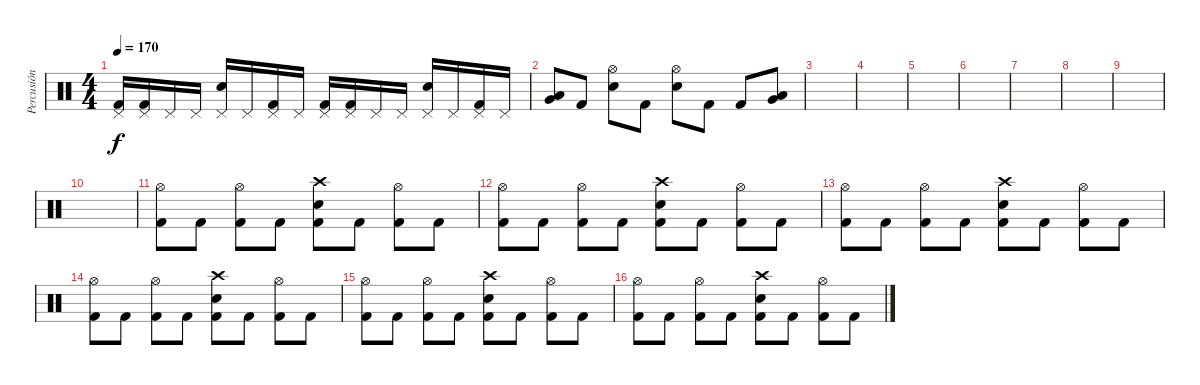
\track ("Percusión" "Percusión") {instrument percussion}
\staff {score}
\articulation defaults
\ts (4 4)
\tempo 170
\clef neutral
\ks c
("Pedal Hi-Hat (hit)" "Kick (hit) 2").16{dy f} ("Pedal Hi-Hat (hit)" "Kick (hit) 2").16 "Pedal Hi-Hat (hit)".16 "Pedal Hi-Hat (hit)".16 ("Pedal Hi-Hat (hit)" "Electric Snare (hit)").16 "Pedal Hi-Hat (hit)".16 ("Pedal Hi-Hat (hit)" "Kick (hit) 2").16 "Pedal Hi-Hat (hit)".16 ("Pedal Hi-Hat (hit)" "Kick (hit) 2").16 ("Pedal Hi-Hat (hit)" "Kick (hit) 2").16 "Pedal Hi-Hat (hit)".16 "Pedal Hi-Hat (hit)".16 ("Pedal Hi-Hat (hit)" "Electric Snare (hit)").16 "Pedal Hi-Hat (hit)".16 ("Pedal Hi-Hat (hit)" "Kick (hit) 2").16 "Pedal Hi-Hat (hit)".16 |
("Low Tom (hit)" "Very Low Tom (hit)").8 "Kick (hit) 2".8 ("Hi-Hat (open)" "Electric Snare (hit)").8 "Kick (hit) 2".8 ("Hi-Hat (open)" "Electric Snare (hit)").8 "Kick (hit) 2".8 "Kick (hit) 2".8 ("Very Low Tom (hit)" "Low Tom (hit)").8 |
|
|
|
|
|
|
|
|
("Hi-Hat (open)" "Kick (hit) 2").8 "Kick (hit) 2".8 ("Hi-Hat (open)" "Kick (hit) 2").8 "Kick (hit) 2".8 ("Crash high (hit)" "Electric Snare (hit)" "Kick (hit) 2").8 "Kick (hit) 2".8 ("Hi-Hat (open)" "Kick (hit) 2").8 "Kick (hit) 2".8 |
("Hi-Hat (open)" "Kick (hit) 2").8 "Kick (hit) 2".8 ("Hi-Hat (open)" "Kick (hit) 2").8 "Kick (hit) 2".8 ("Crash high (hit)" "Electric Snare (hit)" "Kick (hit) 2").8 "Kick (hit) 2".8 ("Hi-Hat (open)" "Kick (hit) 2").8 "Kick (hit) 2".8 |
("Hi-Hat (open)" "Kick (hit) 2").8 "Kick (hit) 2".8 ("Hi-Hat (open)" "Kick (hit) 2").8 "Kick (hit) 2".8 ("Crash high (hit)" "Electric Snare (hit)" "Kick (hit) 2").8 "Kick (hit) 2".8 ("Hi-Hat (open)" "Kick (hit) 2").8 "Kick (hit) 2".8 |
("Hi-Hat (open)" "Kick (hit) 2").8 "Kick (hit) 2".8 ("Hi-Hat (open)" "Kick (hit) 2").8 "Kick (hit) 2".8 ("Crash high (hit)" "Electric Snare (hit)" "Kick (hit) 2").8 "Kick (hit) 2".8 ("Hi-Hat (open)" "Kick (hit) 2").8 "Kick (hit) 2".8 |
("Hi-Hat (open)" "Kick (hit) 2").8 "Kick (hit) 2".8 ("Hi-Hat (open)" "Kick (hit) 2").8 "Kick (hit) 2".8 ("Crash high (hit)" "Electric Snare (hit)" "Kick (hit) 2").8 "Kick (hit) 2".8 ("Hi-Hat (open)" "Kick (hit) 2").8 "Kick (hit) 2".8 |
("Hi-Hat (open)" "Kick (hit) 2").8 "Kick (hit) 2".8 ("Hi-Hat (open)" "Kick (hit) 2").8 "Kick (hit) 2".8 ("Crash high (hit)" "Electric Snare (hit)" "Kick (hit) 2").8 "Kick (hit) 2".8 ("Hi-Hat (open)" "Kick (hit) 2").8 "Kick (hit) 2".8
